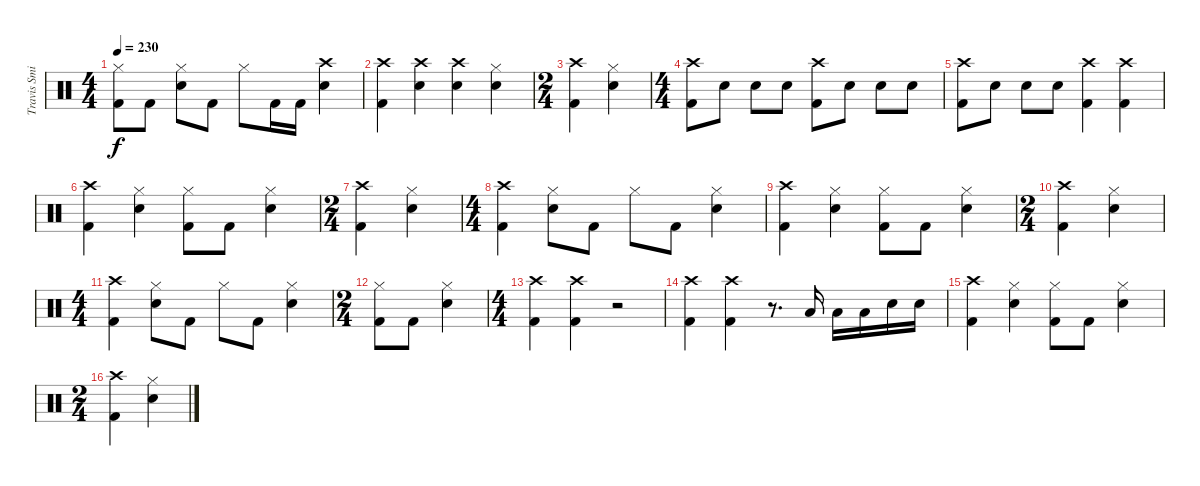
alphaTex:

\track ("Travis Smith (Drums)" "Travis Smi") {instrument percussion}
\staff {score}
\articulation defaults
\ts (4 4)
\tempo 230
\clef neutral
\ks c
("Hi-Hat (closed)" "Kick (hit) 2").8{dy f} "Kick (hit) 2".8 ("Hi-Hat (closed)" "Electric Snare (hit)").8 "Kick (hit) 2".8 "Hi-Hat (closed)".8 "Kick (hit) 2".16 "Kick (hit) 2".16 ("Crash high (hit)" "Electric Snare (hit)").4 |
("Crash high (hit)" "Kick (hit) 2").4 ("Crash high (hit)" "Electric Snare (hit)").4 ("Crash high (hit)" "Electric Snare (hit)").4 ("Hi-Hat (closed)" "Electric Snare (hit)").4 |
\ts (2 4)
("Crash high (hit)" "Kick (hit) 2").4 ("Hi-Hat (closed)" "Electric Snare (hit)").4 |
\ts (4 4)
("Crash high (hit)" "Kick (hit) 2").8 "Electric Snare (hit)".8 "Electric Snare (hit)".8 "Electric Snare (hit)".8 ("Crash high (hit)" "Kick (hit) 2").8 "Electric Snare (hit)".8 "Electric Snare (hit)".8 "Electric Snare (hit)".8 |
("Crash high (hit)" "Kick (hit) 2").8 "Electric Snare (hit)".8 "Electric Snare (hit)".8 "Electric Snare (hit)".8 ("Crash high (hit)" "Kick (hit) 2").4 ("Crash high (hit)" "Kick (hit) 2").4 |
("Crash high (hit)" "Kick (hit) 2").4 ("Hi-Hat (closed)" "Electric Snare (hit)").4 ("Hi-Hat (closed)" "Kick (hit) 2").8 "Kick (hit) 2".8 ("Hi-Hat (closed)" "Electric Snare (hit)").4 |
\ts (2 4)
("Crash high (hit)" "Kick (hit) 2").4 ("Hi-Hat (closed)" "Electric Snare (hit)").4 |
\ts (4 4)
("Crash high (hit)" "Kick (hit) 2").4 ("Hi-Hat (closed)" "Electric Snare (hit)").8 "Kick (hit) 2".8 "Hi-Hat (closed)".8 "Kick (hit) 2".8 ("Hi-Hat (closed)" "Electric Snare (hit)").4 |
("Crash high (hit)" "Kick (hit) 2").4 ("Hi-Hat (closed)" "Electric Snare (hit)").4 ("Hi-Hat (closed)" "Kick (hit) 2").8 "Kick (hit) 2".8 ("Hi-Hat (closed)" "Electric Snare (hit)").4 |
\ts (2 4)
("Crash high (hit)" "Kick (hit) 2").4 ("Hi-Hat (closed)" "Electric Snare (hit)").4 |
\ts (4 4)
("Crash high (hit)" "Kick (hit) 2").4 ("Hi-Hat (closed)" "Electric Snare (hit)").8 "Kick (hit) 2".8 "Hi-Hat (closed)".8 "Kick (hit) 2".8 ("Hi-Hat (closed)" "Electric Snare (hit)").4 |
\ts (2 4)
("Hi-Hat (closed)" "Kick (hit) 2").8 "Kick (hit) 2".8 ("Hi-Hat (closed)" "Electric Snare (hit)").4 |
\ts (4 4)
("Crash high (hit)" "Kick (hit) 2").4 ("Crash high (hit)" "Kick (hit) 2").4 r.2 |
("Crash high (hit)" "Kick (hit) 2").4 ("Crash high (hit)" "Kick (hit) 2").4 r.8{d} "Low Floor Tom (hit)".16 "Low Floor Tom (hit)".16 "Low Floor Tom (hit)".16 "Electric Snare (hit)".16 "Electric Snare (hit)".16 |
("Crash high (hit)" "Kick (hit) 2").4 ("Hi-Hat (closed)" "Electric Snare (hit)").4 ("Hi-Hat (closed)" "Kick (hit) 2").8 "Kick (hit) 2".8 ("Hi-Hat (closed)" "Electric Snare (hit)").4 |
\ts (2 4)
("Crash high (hit)" "Kick (hit) 2").4 ("Hi-Hat (closed)" "Electric Snare (hit)").4
